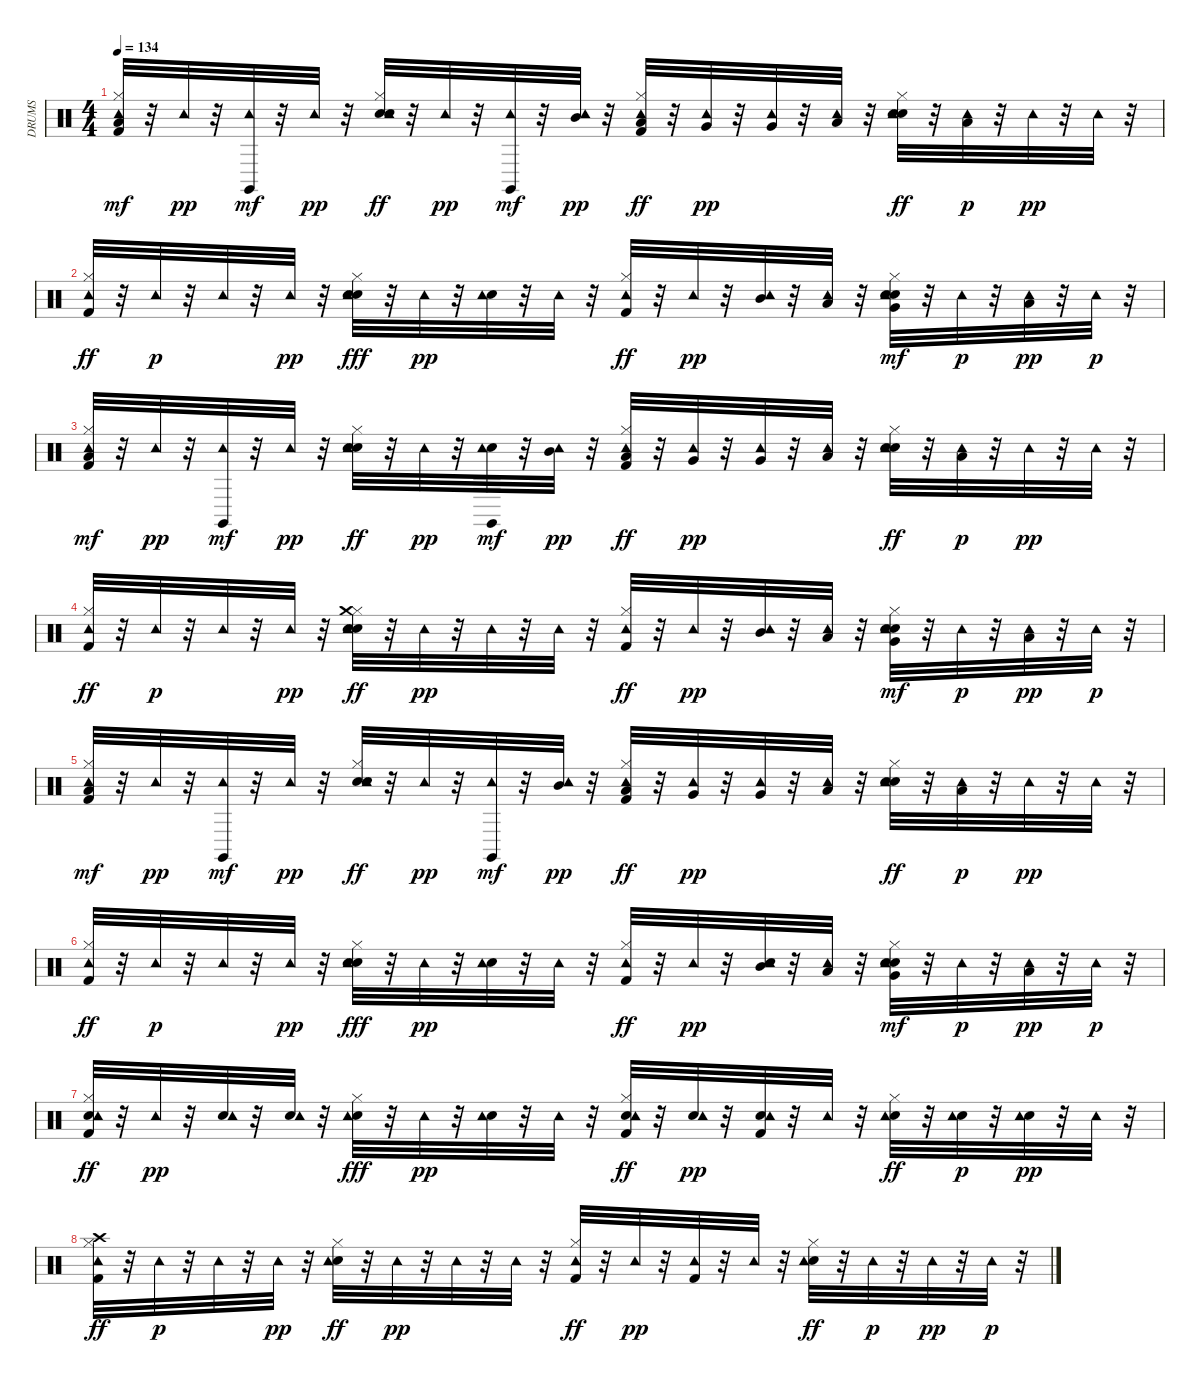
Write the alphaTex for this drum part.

\track ("DRUMS" "DRUMS") {instrument percussion}
\staff {score}
\articulation defaults
\ts (4 4)
\tempo 134
\clef neutral
\ks c
("Kick (hit) 2" "Low Floor Tom (hit)" "Hi-Hat (closed)" "Tambourine (hit)").32{dy mf} r.32 "Tambourine (hit)".32{dy pp} r.32 ("Tambourine (hit)" "Claves (hit)").32{dy mf} r.32 "Tambourine (hit)".32{dy pp} r.32 ("Snare (hit) 2" "Hand Clap (hit)" "Hi-Hat (closed)" "Tambourine (hit)").32{dy ff} r.32 "Tambourine (hit)".32{dy pp} r.32 ("Tambourine (hit)" "Claves (hit)").32{dy mf} r.32 ("Mid Tom (hit)" "Tambourine (hit)").32{dy pp} r.32 ("Kick (hit) 2" "Hi-Hat (closed)" "Low Tom (hit)" "Tambourine (hit)").32{dy ff} r.32 ("Very Low Tom (hit)" "Tambourine (hit)").32{dy pp} r.32 ("Very Low Tom (hit)" "Tambourine (hit)").32 r.32 ("Low Floor Tom (hit)" "Tambourine (hit)").32 r.32 ("Snare (hit) 2" "Hand Clap (hit)" "Hi-Hat (closed)" "Tambourine (hit)").32{dy ff} r.32 ("Low Floor Tom (hit)" "Tambourine (hit)").32{dy p} r.32 "Tambourine (hit)".32{dy pp} r.32 "Tambourine (hit)".32 r.32 |
("Kick (hit) 2" "Hi-Hat (closed)" "Tambourine (hit)").32{dy ff} r.32 "Tambourine (hit)".32{dy p} r.32 "Tambourine (hit)".32 r.32 "Tambourine (hit)".32{dy pp} r.32 ("Snare (hit) 2" "Hand Clap (hit)" "Hi-Hat (closed)" "Tambourine (hit)").32{dy fff} r.32 "Tambourine (hit)".32{dy pp} r.32 ("Hand Clap (hit)" "Tambourine (hit)").32 r.32 "Tambourine (hit)".32 r.32 ("Kick (hit) 2" "Hi-Hat (closed)" "Tambourine (hit)").32{dy ff} r.32 "Tambourine (hit)".32{dy pp} r.32 ("Mid Tom (hit)" "Tambourine (hit)").32 r.32 ("Low Tom (hit)" "Tambourine (hit)").32 r.32 ("Snare (hit) 2" "Hand Clap (hit)" "Hi-Hat (closed)" "Very Low Tom (hit)" "Tambourine (hit)").32{dy mf} r.32 "Tambourine (hit)".32{dy p} r.32 ("Low Floor Tom (hit)" "Tambourine (hit)").32{dy pp} r.32 "Tambourine (hit)".32{dy p} r.32 |
("Kick (hit) 2" "Low Floor Tom (hit)" "Hi-Hat (closed)" "Tambourine (hit)").32{dy mf} r.32 "Tambourine (hit)".32{dy pp} r.32 ("Tambourine (hit)" "Claves (hit)").32{dy mf} r.32 "Tambourine (hit)".32{dy pp} r.32 ("Snare (hit) 2" "Hand Clap (hit)" "Hi-Hat (closed)" "Tambourine (hit)").32{dy ff} r.32 "Tambourine (hit)".32{dy pp} r.32 ("Hand Clap (hit)" "Tambourine (hit)" "Claves (hit)").32{dy mf} r.32 ("Mid Tom (hit)" "Tambourine (hit)").32{dy pp} r.32 ("Kick (hit) 2" "Hi-Hat (closed)" "Low Tom (hit)" "Tambourine (hit)").32{dy ff} r.32 ("Very Low Tom (hit)" "Tambourine (hit)").32{dy pp} r.32 ("Very Low Tom (hit)" "Tambourine (hit)").32 r.32 ("Low Floor Tom (hit)" "Tambourine (hit)").32 r.32 ("Snare (hit) 2" "Hand Clap (hit)" "Hi-Hat (closed)" "Tambourine (hit)").32{dy ff} r.32 ("Low Floor Tom (hit)" "Tambourine (hit)").32{dy p} r.32 "Tambourine (hit)".32{dy pp} r.32 "Tambourine (hit)".32 r.32 |
("Kick (hit) 2" "Hi-Hat (closed)" "Tambourine (hit)").32{dy ff} r.32 "Tambourine (hit)".32{dy p} r.32 "Tambourine (hit)".32 r.32 "Tambourine (hit)".32{dy pp} r.32 ("Snare (hit) 2" "Hand Clap (hit)" "Hi-Hat (closed)" "Crash medium (hit)" "Tambourine (hit)").32{dy ff} r.32 "Tambourine (hit)".32{dy pp} r.32 "Tambourine (hit)".32 r.32 "Tambourine (hit)".32 r.32 ("Kick (hit) 2" "Hi-Hat (closed)" "Tambourine (hit)").32{dy ff} r.32 "Tambourine (hit)".32{dy pp} r.32 ("Mid Tom (hit)" "Tambourine (hit)").32 r.32 ("Low Tom (hit)" "Tambourine (hit)").32 r.32 ("Snare (hit) 2" "Hand Clap (hit)" "Hi-Hat (closed)" "Very Low Tom (hit)" "Tambourine (hit)").32{dy mf} r.32 "Tambourine (hit)".32{dy p} r.32 ("Low Floor Tom (hit)" "Tambourine (hit)").32{dy pp} r.32 "Tambourine (hit)".32{dy p} r.32 |
("Kick (hit) 2" "Low Floor Tom (hit)" "Hi-Hat (closed)" "Tambourine (hit)").32{dy mf} r.32 "Tambourine (hit)".32{dy pp} r.32 ("Tambourine (hit)" "Claves (hit)").32{dy mf} r.32 "Tambourine (hit)".32{dy pp} r.32 ("Snare (hit) 2" "Hand Clap (hit)" "Hi-Hat (closed)" "Tambourine (hit)").32{dy ff} r.32 "Tambourine (hit)".32{dy pp} r.32 ("Tambourine (hit)" "Claves (hit)").32{dy mf} r.32 ("Mid Tom (hit)" "Tambourine (hit)").32{dy pp} r.32 ("Kick (hit) 2" "Hi-Hat (closed)" "Low Tom (hit)" "Tambourine (hit)").32{dy ff} r.32 ("Very Low Tom (hit)" "Tambourine (hit)").32{dy pp} r.32 ("Very Low Tom (hit)" "Tambourine (hit)").32 r.32 ("Low Floor Tom (hit)" "Tambourine (hit)").32 r.32 ("Snare (hit) 2" "Hand Clap (hit)" "Hi-Hat (closed)" "Tambourine (hit)").32{dy ff} r.32 ("Low Floor Tom (hit)" "Tambourine (hit)").32{dy p} r.32 "Tambourine (hit)".32{dy pp} r.32 "Tambourine (hit)".32 r.32 |
("Kick (hit) 2" "Hi-Hat (closed)" "Tambourine (hit)").32{dy ff} r.32 "Tambourine (hit)".32{dy p} r.32 "Tambourine (hit)".32 r.32 "Tambourine (hit)".32{dy pp} r.32 ("Snare (hit) 2" "Hand Clap (hit)" "Hi-Hat (closed)" "Tambourine (hit)").32{dy fff} r.32 "Tambourine (hit)".32{dy pp} r.32 ("Hand Clap (hit)" "Tambourine (hit)").32 r.32 "Tambourine (hit)".32 r.32 ("Kick (hit) 2" "Hi-Hat (closed)" "Tambourine (hit)").32{dy ff} r.32 "Tambourine (hit)".32{dy pp} r.32 ("Snare (hit) 2" "Mid Tom (hit)" "Tambourine (hit)").32 r.32 ("Low Tom (hit)" "Tambourine (hit)").32 r.32 ("Snare (hit) 2" "Hand Clap (hit)" "Hi-Hat (closed)" "Very Low Tom (hit)" "Tambourine (hit)").32{dy mf} r.32 "Tambourine (hit)".32{dy p} r.32 ("Low Floor Tom (hit)" "Tambourine (hit)").32{dy pp} r.32 "Tambourine (hit)".32{dy p} r.32 |
("Kick (hit) 2" "Snare (hit) 2" "Hi-Hat (closed)" "Tambourine (hit)").32{dy ff} r.32 "Tambourine (hit)".32{dy pp} r.32 ("Snare (hit) 2" "Tambourine (hit)").32 r.32 ("Snare (hit) 2" "Tambourine (hit)").32 r.32 ("Snare (hit) 2" "Hi-Hat (closed)" "Tambourine (hit)").32{dy fff} r.32 "Tambourine (hit)".32{dy pp} r.32 ("Snare (hit) 2" "Tambourine (hit)").32 r.32 "Tambourine (hit)".32 r.32 ("Kick (hit) 2" "Snare (hit) 2" "Hi-Hat (closed)" "Tambourine (hit)").32{dy ff} r.32 ("Snare (hit) 2" "Tambourine (hit)").32{dy pp} r.32 ("Kick (hit) 2" "Snare (hit) 2" "Tambourine (hit)").32 r.32 "Tambourine (hit)".32 r.32 ("Snare (hit) 2" "Hi-Hat (closed)" "Tambourine (hit)").32{dy ff} r.32 ("Snare (hit) 2" "Tambourine (hit)").32{dy p} r.32 ("Snare (hit) 2" "Tambourine (hit)").32{dy pp} r.32 "Tambourine (hit)".32 r.32 |
("Kick (hit) 2" "Hi-Hat (closed)" "Crash high (hit)" "Tambourine (hit)").32{dy ff} r.32 "Tambourine (hit)".32{dy p} r.32 "Tambourine (hit)".32 r.32 "Tambourine (hit)".32{dy pp} r.32 ("Snare (hit) 2" "Hi-Hat (closed)" "Tambourine (hit)").32{dy ff} r.32 "Tambourine (hit)".32{dy pp} r.32 "Tambourine (hit)".32 r.32 "Tambourine (hit)".32 r.32 ("Kick (hit) 2" "Hi-Hat (closed)" "Tambourine (hit)").32{dy ff} r.32 "Tambourine (hit)".32{dy pp} r.32 ("Kick (hit) 2" "Tambourine (hit)").32 r.32 "Tambourine (hit)".32 r.32 ("Snare (hit) 2" "Hi-Hat (closed)" "Tambourine (hit)").32{dy ff} r.32 "Tambourine (hit)".32{dy p} r.32 "Tambourine (hit)".32{dy pp} r.32 "Tambourine (hit)".32{dy p} r.32
